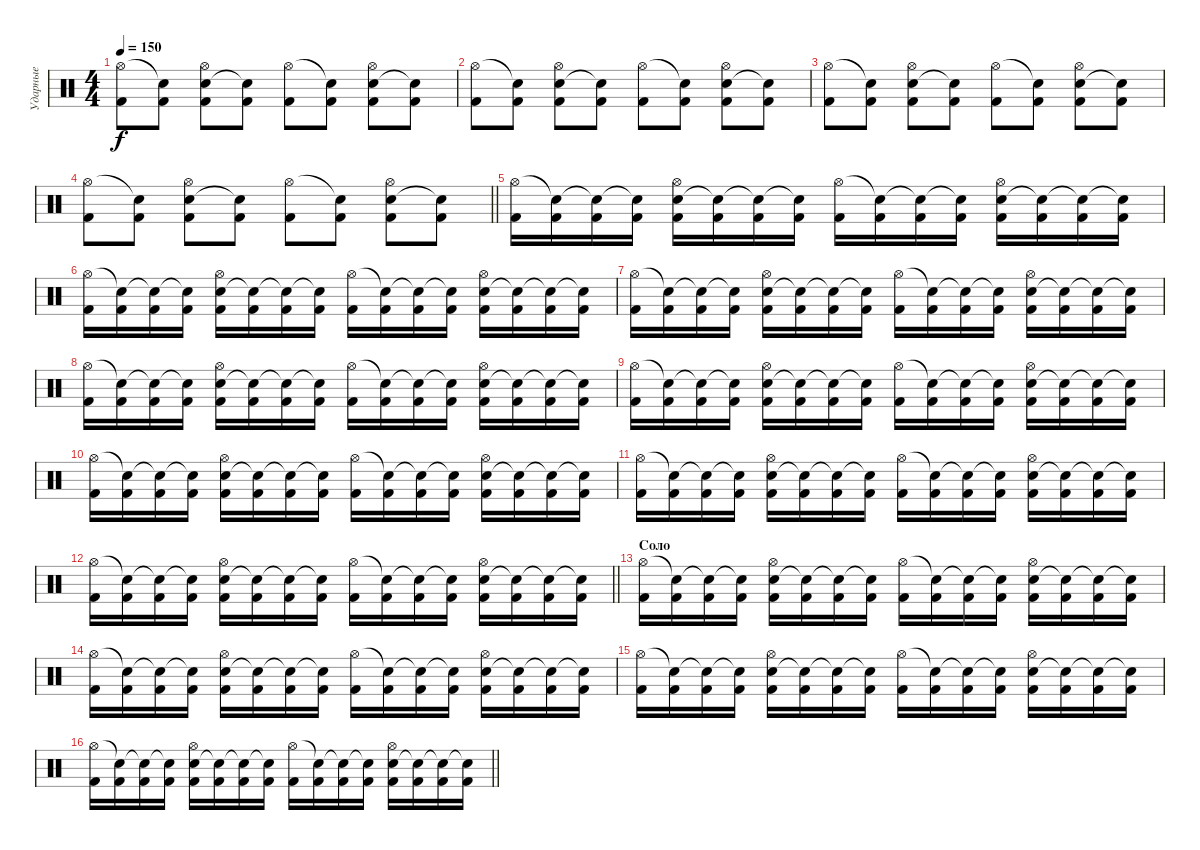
\track ("Ударные" "Ударные") {instrument percussion}
\staff {score}
\articulation defaults
\ts (4 4)
\tempo 150
\clef neutral
\ks c
("Hi-Hat (open)" "Kick (hit) 2").8{dy f} ("Snare (hit)"{t} "Kick (hit) 2").8 ("Electric Snare (hit)" "Hi-Hat (open)" "Kick (hit) 2").8 ("Snare (hit)"{t} "Kick (hit) 2").8 ("Hi-Hat (open)" "Kick (hit) 2").8 ("Snare (hit)"{t} "Kick (hit) 2").8 ("Electric Snare (hit)" "Hi-Hat (open)" "Kick (hit) 2").8 ("Snare (hit)"{t} "Kick (hit) 2").8 |
("Hi-Hat (open)" "Kick (hit) 2").8 ("Snare (hit)"{t} "Kick (hit) 2").8 ("Electric Snare (hit)" "Hi-Hat (open)" "Kick (hit) 2").8 ("Snare (hit)"{t} "Kick (hit) 2").8 ("Hi-Hat (open)" "Kick (hit) 2").8 ("Snare (hit)"{t} "Kick (hit) 2").8 ("Electric Snare (hit)" "Hi-Hat (open)" "Kick (hit) 2").8 ("Snare (hit)"{t} "Kick (hit) 2").8 |
("Hi-Hat (open)" "Kick (hit) 2").8 ("Snare (hit)"{t} "Kick (hit) 2").8 ("Electric Snare (hit)" "Hi-Hat (open)" "Kick (hit) 2").8 ("Snare (hit)"{t} "Kick (hit) 2").8 ("Hi-Hat (open)" "Kick (hit) 2").8 ("Snare (hit)"{t} "Kick (hit) 2").8 ("Electric Snare (hit)" "Hi-Hat (open)" "Kick (hit) 2").8 ("Snare (hit)"{t} "Kick (hit) 2").8 |
\barLineRight lightlight
("Hi-Hat (open)" "Kick (hit) 2").8 ("Snare (hit)"{t} "Kick (hit) 2").8 ("Electric Snare (hit)" "Hi-Hat (open)" "Kick (hit) 2").8 ("Snare (hit)"{t} "Kick (hit) 2").8 ("Hi-Hat (open)" "Kick (hit) 2").8 ("Snare (hit)"{t} "Kick (hit) 2").8 ("Electric Snare (hit)" "Hi-Hat (open)" "Kick (hit) 2").8 ("Snare (hit)"{t} "Kick (hit) 2").8 |
("Hi-Hat (open)" "Kick (hit) 2").16 ("Snare (hit)"{t} "Kick (hit) 2").16 ("Snare (hit)"{t} "Kick (hit) 2").16 ("Snare (hit)"{t} "Kick (hit) 2").16 ("Electric Snare (hit)" "Hi-Hat (open)" "Kick (hit) 2").16 ("Snare (hit)"{t} "Kick (hit) 2").16 ("Snare (hit)"{t} "Kick (hit) 2").16 ("Snare (hit)"{t} "Kick (hit) 2").16 ("Hi-Hat (open)" "Kick (hit) 2").16 ("Snare (hit)"{t} "Kick (hit) 2").16 ("Snare (hit)"{t} "Kick (hit) 2").16 ("Snare (hit)"{t} "Kick (hit) 2").16 ("Electric Snare (hit)" "Hi-Hat (open)" "Kick (hit) 2").16 ("Snare (hit)"{t} "Kick (hit) 2").16 ("Snare (hit)"{t} "Kick (hit) 2").16 ("Snare (hit)"{t} "Kick (hit) 2").16 |
("Hi-Hat (open)" "Kick (hit) 2").16 ("Snare (hit)"{t} "Kick (hit) 2").16 ("Snare (hit)"{t} "Kick (hit) 2").16 ("Snare (hit)"{t} "Kick (hit) 2").16 ("Electric Snare (hit)" "Hi-Hat (open)" "Kick (hit) 2").16 ("Snare (hit)"{t} "Kick (hit) 2").16 ("Snare (hit)"{t} "Kick (hit) 2").16 ("Snare (hit)"{t} "Kick (hit) 2").16 ("Hi-Hat (open)" "Kick (hit) 2").16 ("Snare (hit)"{t} "Kick (hit) 2").16 ("Snare (hit)"{t} "Kick (hit) 2").16 ("Snare (hit)"{t} "Kick (hit) 2").16 ("Electric Snare (hit)" "Hi-Hat (open)" "Kick (hit) 2").16 ("Snare (hit)"{t} "Kick (hit) 2").16 ("Snare (hit)"{t} "Kick (hit) 2").16 ("Snare (hit)"{t} "Kick (hit) 2").16 |
("Hi-Hat (open)" "Kick (hit) 2").16 ("Snare (hit)"{t} "Kick (hit) 2").16 ("Snare (hit)"{t} "Kick (hit) 2").16 ("Snare (hit)"{t} "Kick (hit) 2").16 ("Electric Snare (hit)" "Hi-Hat (open)" "Kick (hit) 2").16 ("Snare (hit)"{t} "Kick (hit) 2").16 ("Snare (hit)"{t} "Kick (hit) 2").16 ("Snare (hit)"{t} "Kick (hit) 2").16 ("Hi-Hat (open)" "Kick (hit) 2").16 ("Snare (hit)"{t} "Kick (hit) 2").16 ("Snare (hit)"{t} "Kick (hit) 2").16 ("Snare (hit)"{t} "Kick (hit) 2").16 ("Electric Snare (hit)" "Hi-Hat (open)" "Kick (hit) 2").16 ("Snare (hit)"{t} "Kick (hit) 2").16 ("Snare (hit)"{t} "Kick (hit) 2").16 ("Snare (hit)"{t} "Kick (hit) 2").16 |
("Hi-Hat (open)" "Kick (hit) 2").16 ("Snare (hit)"{t} "Kick (hit) 2").16 ("Snare (hit)"{t} "Kick (hit) 2").16 ("Snare (hit)"{t} "Kick (hit) 2").16 ("Electric Snare (hit)" "Hi-Hat (open)" "Kick (hit) 2").16 ("Snare (hit)"{t} "Kick (hit) 2").16 ("Snare (hit)"{t} "Kick (hit) 2").16 ("Snare (hit)"{t} "Kick (hit) 2").16 ("Hi-Hat (open)" "Kick (hit) 2").16 ("Snare (hit)"{t} "Kick (hit) 2").16 ("Snare (hit)"{t} "Kick (hit) 2").16 ("Snare (hit)"{t} "Kick (hit) 2").16 ("Electric Snare (hit)" "Hi-Hat (open)" "Kick (hit) 2").16 ("Snare (hit)"{t} "Kick (hit) 2").16 ("Snare (hit)"{t} "Kick (hit) 2").16 ("Snare (hit)"{t} "Kick (hit) 2").16 |
("Hi-Hat (open)" "Kick (hit) 2").16 ("Snare (hit)"{t} "Kick (hit) 2").16 ("Snare (hit)"{t} "Kick (hit) 2").16 ("Snare (hit)"{t} "Kick (hit) 2").16 ("Electric Snare (hit)" "Hi-Hat (open)" "Kick (hit) 2").16 ("Snare (hit)"{t} "Kick (hit) 2").16 ("Snare (hit)"{t} "Kick (hit) 2").16 ("Snare (hit)"{t} "Kick (hit) 2").16 ("Hi-Hat (open)" "Kick (hit) 2").16 ("Snare (hit)"{t} "Kick (hit) 2").16 ("Snare (hit)"{t} "Kick (hit) 2").16 ("Snare (hit)"{t} "Kick (hit) 2").16 ("Electric Snare (hit)" "Hi-Hat (open)" "Kick (hit) 2").16 ("Snare (hit)"{t} "Kick (hit) 2").16 ("Snare (hit)"{t} "Kick (hit) 2").16 ("Snare (hit)"{t} "Kick (hit) 2").16 |
("Hi-Hat (open)" "Kick (hit) 2").16 ("Snare (hit)"{t} "Kick (hit) 2").16 ("Snare (hit)"{t} "Kick (hit) 2").16 ("Snare (hit)"{t} "Kick (hit) 2").16 ("Electric Snare (hit)" "Hi-Hat (open)" "Kick (hit) 2").16 ("Snare (hit)"{t} "Kick (hit) 2").16 ("Snare (hit)"{t} "Kick (hit) 2").16 ("Snare (hit)"{t} "Kick (hit) 2").16 ("Hi-Hat (open)" "Kick (hit) 2").16 ("Snare (hit)"{t} "Kick (hit) 2").16 ("Snare (hit)"{t} "Kick (hit) 2").16 ("Snare (hit)"{t} "Kick (hit) 2").16 ("Electric Snare (hit)" "Hi-Hat (open)" "Kick (hit) 2").16 ("Snare (hit)"{t} "Kick (hit) 2").16 ("Snare (hit)"{t} "Kick (hit) 2").16 ("Snare (hit)"{t} "Kick (hit) 2").16 |
("Hi-Hat (open)" "Kick (hit) 2").16 ("Snare (hit)"{t} "Kick (hit) 2").16 ("Snare (hit)"{t} "Kick (hit) 2").16 ("Snare (hit)"{t} "Kick (hit) 2").16 ("Electric Snare (hit)" "Hi-Hat (open)" "Kick (hit) 2").16 ("Snare (hit)"{t} "Kick (hit) 2").16 ("Snare (hit)"{t} "Kick (hit) 2").16 ("Snare (hit)"{t} "Kick (hit) 2").16 ("Hi-Hat (open)" "Kick (hit) 2").16 ("Snare (hit)"{t} "Kick (hit) 2").16 ("Snare (hit)"{t} "Kick (hit) 2").16 ("Snare (hit)"{t} "Kick (hit) 2").16 ("Electric Snare (hit)" "Hi-Hat (open)" "Kick (hit) 2").16 ("Snare (hit)"{t} "Kick (hit) 2").16 ("Snare (hit)"{t} "Kick (hit) 2").16 ("Snare (hit)"{t} "Kick (hit) 2").16 |
\barLineRight lightlight
("Hi-Hat (open)" "Kick (hit) 2").16 ("Snare (hit)"{t} "Kick (hit) 2").16 ("Snare (hit)"{t} "Kick (hit) 2").16 ("Snare (hit)"{t} "Kick (hit) 2").16 ("Electric Snare (hit)" "Hi-Hat (open)" "Kick (hit) 2").16 ("Snare (hit)"{t} "Kick (hit) 2").16 ("Snare (hit)"{t} "Kick (hit) 2").16 ("Snare (hit)"{t} "Kick (hit) 2").16 ("Hi-Hat (open)" "Kick (hit) 2").16 ("Snare (hit)"{t} "Kick (hit) 2").16 ("Snare (hit)"{t} "Kick (hit) 2").16 ("Snare (hit)"{t} "Kick (hit) 2").16 ("Electric Snare (hit)" "Hi-Hat (open)" "Kick (hit) 2").16 ("Snare (hit)"{t} "Kick (hit) 2").16 ("Snare (hit)"{t} "Kick (hit) 2").16 ("Snare (hit)"{t} "Kick (hit) 2").16 |
\section ("" "Соло")
("Hi-Hat (open)" "Kick (hit) 2").16 ("Snare (hit)"{t} "Kick (hit) 2").16 ("Snare (hit)"{t} "Kick (hit) 2").16 ("Snare (hit)"{t} "Kick (hit) 2").16 ("Electric Snare (hit)" "Hi-Hat (open)" "Kick (hit) 2").16 ("Snare (hit)"{t} "Kick (hit) 2").16 ("Snare (hit)"{t} "Kick (hit) 2").16 ("Snare (hit)"{t} "Kick (hit) 2").16 ("Hi-Hat (open)" "Kick (hit) 2").16 ("Snare (hit)"{t} "Kick (hit) 2").16 ("Snare (hit)"{t} "Kick (hit) 2").16 ("Snare (hit)"{t} "Kick (hit) 2").16 ("Electric Snare (hit)" "Hi-Hat (open)" "Kick (hit) 2").16 ("Snare (hit)"{t} "Kick (hit) 2").16 ("Snare (hit)"{t} "Kick (hit) 2").16 ("Snare (hit)"{t} "Kick (hit) 2").16 |
("Hi-Hat (open)" "Kick (hit) 2").16 ("Snare (hit)"{t} "Kick (hit) 2").16 ("Snare (hit)"{t} "Kick (hit) 2").16 ("Snare (hit)"{t} "Kick (hit) 2").16 ("Electric Snare (hit)" "Hi-Hat (open)" "Kick (hit) 2").16 ("Snare (hit)"{t} "Kick (hit) 2").16 ("Snare (hit)"{t} "Kick (hit) 2").16 ("Snare (hit)"{t} "Kick (hit) 2").16 ("Hi-Hat (open)" "Kick (hit) 2").16 ("Snare (hit)"{t} "Kick (hit) 2").16 ("Snare (hit)"{t} "Kick (hit) 2").16 ("Snare (hit)"{t} "Kick (hit) 2").16 ("Electric Snare (hit)" "Hi-Hat (open)" "Kick (hit) 2").16 ("Snare (hit)"{t} "Kick (hit) 2").16 ("Snare (hit)"{t} "Kick (hit) 2").16 ("Snare (hit)"{t} "Kick (hit) 2").16 |
("Hi-Hat (open)" "Kick (hit) 2").16 ("Snare (hit)"{t} "Kick (hit) 2").16 ("Snare (hit)"{t} "Kick (hit) 2").16 ("Snare (hit)"{t} "Kick (hit) 2").16 ("Electric Snare (hit)" "Hi-Hat (open)" "Kick (hit) 2").16 ("Snare (hit)"{t} "Kick (hit) 2").16 ("Snare (hit)"{t} "Kick (hit) 2").16 ("Snare (hit)"{t} "Kick (hit) 2").16 ("Hi-Hat (open)" "Kick (hit) 2").16 ("Snare (hit)"{t} "Kick (hit) 2").16 ("Snare (hit)"{t} "Kick (hit) 2").16 ("Snare (hit)"{t} "Kick (hit) 2").16 ("Electric Snare (hit)" "Hi-Hat (open)" "Kick (hit) 2").16 ("Snare (hit)"{t} "Kick (hit) 2").16 ("Snare (hit)"{t} "Kick (hit) 2").16 ("Snare (hit)"{t} "Kick (hit) 2").16 |
\barLineRight lightlight
("Hi-Hat (open)" "Kick (hit) 2").16 ("Snare (hit)"{t} "Kick (hit) 2").16 ("Snare (hit)"{t} "Kick (hit) 2").16 ("Snare (hit)"{t} "Kick (hit) 2").16 ("Electric Snare (hit)" "Hi-Hat (open)" "Kick (hit) 2").16 ("Snare (hit)"{t} "Kick (hit) 2").16 ("Snare (hit)"{t} "Kick (hit) 2").16 ("Snare (hit)"{t} "Kick (hit) 2").16 ("Hi-Hat (open)" "Kick (hit) 2").16 ("Snare (hit)"{t} "Kick (hit) 2").16 ("Snare (hit)"{t} "Kick (hit) 2").16 ("Snare (hit)"{t} "Kick (hit) 2").16 ("Electric Snare (hit)" "Hi-Hat (open)" "Kick (hit) 2").16 ("Snare (hit)"{t} "Kick (hit) 2").16 ("Snare (hit)"{t} "Kick (hit) 2").16 ("Snare (hit)"{t} "Kick (hit) 2").16
